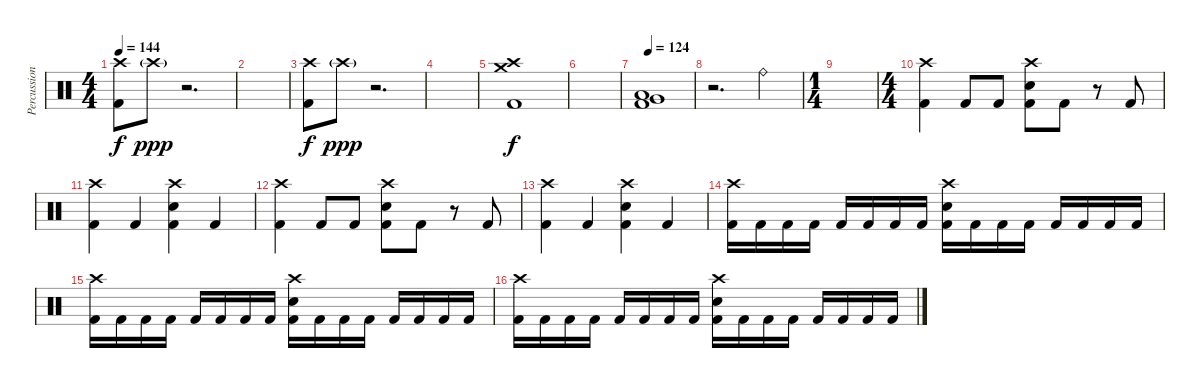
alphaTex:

\track ("Percussion" "Percussion") {instrument percussion}
\staff {score}
\articulation defaults
\ts (4 4)
\tempo 144
\clef neutral
\ks c
("Crash high (hit)" "Kick (hit) 2").8{dy f} "Crash high (hit)"{g}.8{dy ppp} r.2{d} |
|
("Crash high (hit)" "Kick (hit) 2").8{dy f} "Crash high (hit)"{g}.8{dy ppp} r.2{d} |
|
("Crash medium (hit)" "Crash high (hit)" "Kick (hit) 2").1{dy f} |
|
\tempo 124
("Low Floor Tom (hit)" "Very Low Tom (hit)" "Kick (hit) 2").1 |
r.2{d} "Ride (bell)".4 |
\ts (1 4)
|
\ts (4 4)
("Crash high (hit)" "Kick (hit) 2").4 "Kick (hit) 2".8 "Kick (hit) 2".8 ("Crash high (hit)" "Snare (hit) 2" "Kick (hit) 2").8 "Kick (hit) 2".8 r.8 "Kick (hit) 2".8 |
("Crash high (hit)" "Kick (hit) 2").4 "Kick (hit) 2".4 ("Crash high (hit)" "Snare (hit) 2" "Kick (hit) 2").4 "Kick (hit) 2".4 |
("Crash high (hit)" "Kick (hit) 2").4 "Kick (hit) 2".8 "Kick (hit) 2".8 ("Crash high (hit)" "Snare (hit) 2" "Kick (hit) 2").8 "Kick (hit) 2".8 r.8 "Kick (hit) 2".8 |
("Crash high (hit)" "Kick (hit) 2").4 "Kick (hit) 2".4 ("Crash high (hit)" "Snare (hit) 2" "Kick (hit) 2").4 "Kick (hit) 2".4 |
("Crash high (hit)" "Kick (hit) 2").16 "Kick (hit) 2".16 "Kick (hit) 2".16 "Kick (hit) 2".16 "Kick (hit) 2".16 "Kick (hit) 2".16 "Kick (hit) 2".16 "Kick (hit) 2".16 ("Crash high (hit)" "Snare (hit) 2" "Kick (hit) 2").16 "Kick (hit) 2".16 "Kick (hit) 2".16 "Kick (hit) 2".16 "Kick (hit) 2".16 "Kick (hit) 2".16 "Kick (hit) 2".16 "Kick (hit) 2".16 |
("Crash high (hit)" "Kick (hit) 2").16 "Kick (hit) 2".16 "Kick (hit) 2".16 "Kick (hit) 2".16 "Kick (hit) 2".16 "Kick (hit) 2".16 "Kick (hit) 2".16 "Kick (hit) 2".16 ("Crash high (hit)" "Snare (hit) 2" "Kick (hit) 2").16 "Kick (hit) 2".16 "Kick (hit) 2".16 "Kick (hit) 2".16 "Kick (hit) 2".16 "Kick (hit) 2".16 "Kick (hit) 2".16 "Kick (hit) 2".16 |
("Crash high (hit)" "Kick (hit) 2").16 "Kick (hit) 2".16 "Kick (hit) 2".16 "Kick (hit) 2".16 "Kick (hit) 2".16 "Kick (hit) 2".16 "Kick (hit) 2".16 "Kick (hit) 2".16 ("Crash high (hit)" "Snare (hit) 2" "Kick (hit) 2").16 "Kick (hit) 2".16 "Kick (hit) 2".16 "Kick (hit) 2".16 "Kick (hit) 2".16 "Kick (hit) 2".16 "Kick (hit) 2".16 "Kick (hit) 2".16
